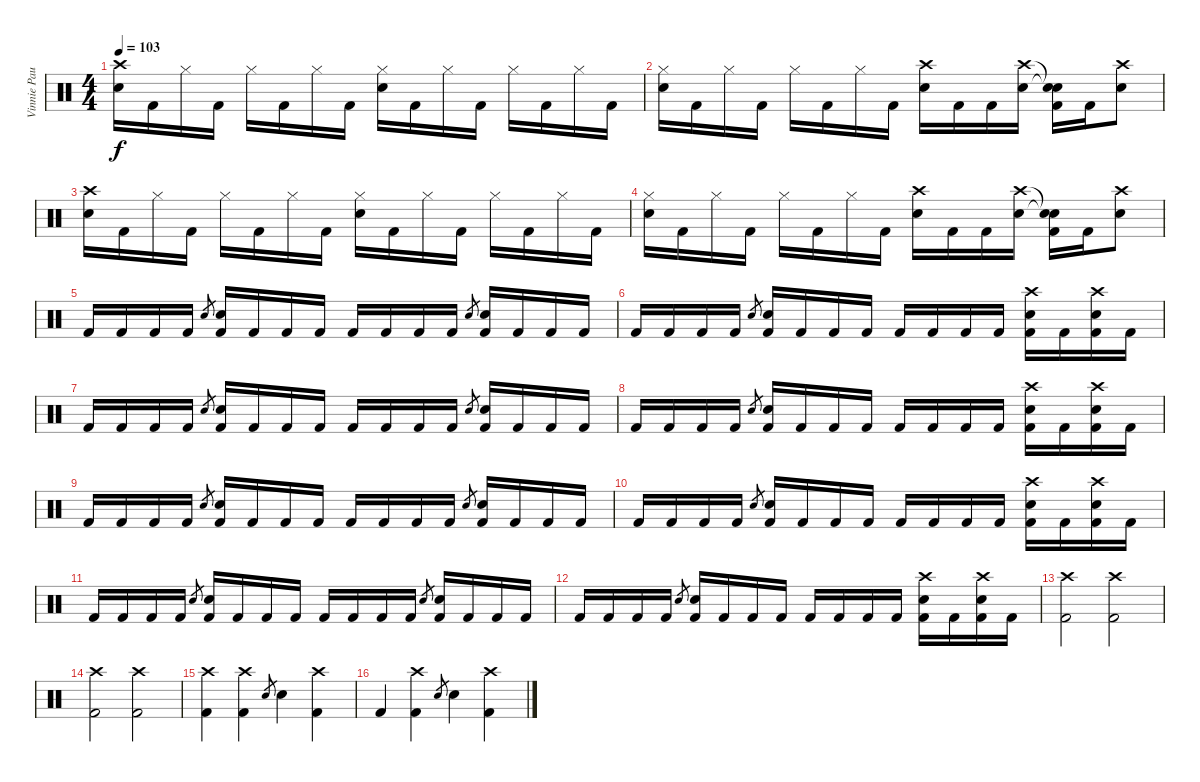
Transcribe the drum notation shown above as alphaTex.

\track ("Vinnie Paul" "Vinnie Pau") {instrument percussion}
\staff {score}
\articulation defaults
\ts (4 4)
\tempo 103
\clef neutral
\ks c
("Crash high (hit)" "Electric Snare (hit)").16{dy f} "Kick (hit) 2".16 "Hi-Hat (closed)".16 "Kick (hit) 2".16 "Hi-Hat (closed)".16 "Kick (hit) 2".16 "Hi-Hat (closed)".16 "Kick (hit) 2".16 ("Hi-Hat (closed)" "Electric Snare (hit)").16 "Kick (hit) 2".16 "Hi-Hat (closed)".16 "Kick (hit) 2".16 "Hi-Hat (closed)".16 "Kick (hit) 2".16 "Hi-Hat (closed)".16 "Kick (hit) 2".16 |
("Hi-Hat (closed)" "Electric Snare (hit)").16 "Kick (hit) 2".16 "Hi-Hat (closed)".16 "Kick (hit) 2".16 "Hi-Hat (closed)".16 "Kick (hit) 2".16 "Hi-Hat (closed)".16 "Kick (hit) 2".16 ("Crash high (hit)" "Electric Snare (hit)").16 "Kick (hit) 2".16 "Kick (hit) 2".16 ("Crash high (hit)" "Electric Snare (hit)").16 ("Snare (hit)"{t} "Snare (hit)"{t} "Kick (hit) 2").16 "Kick (hit) 2".16 ("Crash high (hit)" "Electric Snare (hit)").8 |
("Crash high (hit)" "Electric Snare (hit)").16 "Kick (hit) 2".16 "Hi-Hat (closed)".16 "Kick (hit) 2".16 "Hi-Hat (closed)".16 "Kick (hit) 2".16 "Hi-Hat (closed)".16 "Kick (hit) 2".16 ("Hi-Hat (closed)" "Electric Snare (hit)").16 "Kick (hit) 2".16 "Hi-Hat (closed)".16 "Kick (hit) 2".16 "Hi-Hat (closed)".16 "Kick (hit) 2".16 "Hi-Hat (closed)".16 "Kick (hit) 2".16 |
("Hi-Hat (closed)" "Electric Snare (hit)").16 "Kick (hit) 2".16 "Hi-Hat (closed)".16 "Kick (hit) 2".16 "Hi-Hat (closed)".16 "Kick (hit) 2".16 "Hi-Hat (closed)".16 "Kick (hit) 2".16 ("Crash high (hit)" "Electric Snare (hit)").16 "Kick (hit) 2".16 "Kick (hit) 2".16 ("Crash high (hit)" "Electric Snare (hit)").16 ("Snare (hit)"{t} "Snare (hit)"{t} "Kick (hit) 2").16 "Kick (hit) 2".16 ("Crash high (hit)" "Electric Snare (hit)").8 |
"Kick (hit) 2".16 "Kick (hit) 2".16 "Kick (hit) 2".16 "Kick (hit) 2".16 "Electric Snare (hit)".8{gr} ("Electric Snare (hit)" "Kick (hit) 2").16 "Kick (hit) 2".16 "Kick (hit) 2".16 "Kick (hit) 2".16 "Kick (hit) 2".16 "Kick (hit) 2".16 "Kick (hit) 2".16 "Kick (hit) 2".16 "Electric Snare (hit)".8{gr} ("Electric Snare (hit)" "Kick (hit) 2").16 "Kick (hit) 2".16 "Kick (hit) 2".16 "Kick (hit) 2".16 |
"Kick (hit) 2".16 "Kick (hit) 2".16 "Kick (hit) 2".16 "Kick (hit) 2".16 "Electric Snare (hit)".8{gr} ("Electric Snare (hit)" "Kick (hit) 2").16 "Kick (hit) 2".16 "Kick (hit) 2".16 "Kick (hit) 2".16 "Kick (hit) 2".16 "Kick (hit) 2".16 "Kick (hit) 2".16 "Kick (hit) 2".16 ("Crash high (hit)" "Electric Snare (hit)" "Kick (hit) 2").16 "Kick (hit) 2".16 ("Crash high (hit)" "Electric Snare (hit)" "Kick (hit) 2").16 "Kick (hit) 2".16 |
"Kick (hit) 2".16 "Kick (hit) 2".16 "Kick (hit) 2".16 "Kick (hit) 2".16 "Electric Snare (hit)".8{gr} ("Electric Snare (hit)" "Kick (hit) 2").16 "Kick (hit) 2".16 "Kick (hit) 2".16 "Kick (hit) 2".16 "Kick (hit) 2".16 "Kick (hit) 2".16 "Kick (hit) 2".16 "Kick (hit) 2".16 "Electric Snare (hit)".8{gr} ("Electric Snare (hit)" "Kick (hit) 2").16 "Kick (hit) 2".16 "Kick (hit) 2".16 "Kick (hit) 2".16 |
"Kick (hit) 2".16 "Kick (hit) 2".16 "Kick (hit) 2".16 "Kick (hit) 2".16 "Electric Snare (hit)".8{gr} ("Electric Snare (hit)" "Kick (hit) 2").16 "Kick (hit) 2".16 "Kick (hit) 2".16 "Kick (hit) 2".16 "Kick (hit) 2".16 "Kick (hit) 2".16 "Kick (hit) 2".16 "Kick (hit) 2".16 ("Crash high (hit)" "Electric Snare (hit)" "Kick (hit) 2").16 "Kick (hit) 2".16 ("Crash high (hit)" "Electric Snare (hit)" "Kick (hit) 2").16 "Kick (hit) 2".16 |
"Kick (hit) 2".16 "Kick (hit) 2".16 "Kick (hit) 2".16 "Kick (hit) 2".16 "Electric Snare (hit)".8{gr} ("Electric Snare (hit)" "Kick (hit) 2").16 "Kick (hit) 2".16 "Kick (hit) 2".16 "Kick (hit) 2".16 "Kick (hit) 2".16 "Kick (hit) 2".16 "Kick (hit) 2".16 "Kick (hit) 2".16 "Electric Snare (hit)".8{gr} ("Electric Snare (hit)" "Kick (hit) 2").16 "Kick (hit) 2".16 "Kick (hit) 2".16 "Kick (hit) 2".16 |
"Kick (hit) 2".16 "Kick (hit) 2".16 "Kick (hit) 2".16 "Kick (hit) 2".16 "Electric Snare (hit)".8{gr} ("Electric Snare (hit)" "Kick (hit) 2").16 "Kick (hit) 2".16 "Kick (hit) 2".16 "Kick (hit) 2".16 "Kick (hit) 2".16 "Kick (hit) 2".16 "Kick (hit) 2".16 "Kick (hit) 2".16 ("Crash high (hit)" "Electric Snare (hit)" "Kick (hit) 2").16 "Kick (hit) 2".16 ("Crash high (hit)" "Electric Snare (hit)" "Kick (hit) 2").16 "Kick (hit) 2".16 |
"Kick (hit) 2".16 "Kick (hit) 2".16 "Kick (hit) 2".16 "Kick (hit) 2".16 "Electric Snare (hit)".8{gr} ("Electric Snare (hit)" "Kick (hit) 2").16 "Kick (hit) 2".16 "Kick (hit) 2".16 "Kick (hit) 2".16 "Kick (hit) 2".16 "Kick (hit) 2".16 "Kick (hit) 2".16 "Kick (hit) 2".16 "Electric Snare (hit)".8{gr} ("Electric Snare (hit)" "Kick (hit) 2").16 "Kick (hit) 2".16 "Kick (hit) 2".16 "Kick (hit) 2".16 |
"Kick (hit) 2".16 "Kick (hit) 2".16 "Kick (hit) 2".16 "Kick (hit) 2".16 "Electric Snare (hit)".8{gr} ("Electric Snare (hit)" "Kick (hit) 2").16 "Kick (hit) 2".16 "Kick (hit) 2".16 "Kick (hit) 2".16 "Kick (hit) 2".16 "Kick (hit) 2".16 "Kick (hit) 2".16 "Kick (hit) 2".16 ("Crash high (hit)" "Electric Snare (hit)" "Kick (hit) 2").16 "Kick (hit) 2".16 ("Crash high (hit)" "Electric Snare (hit)" "Kick (hit) 2").16 "Kick (hit) 2".16 |
("Crash high (hit)" "Kick (hit) 2").2 ("Crash high (hit)" "Kick (hit) 2").2 |
("Crash high (hit)" "Kick (hit) 2").2 ("Crash high (hit)" "Kick (hit) 2").2 |
("Crash high (hit)" "Kick (hit) 2").4 ("Crash high (hit)" "Kick (hit) 2").4 "Electric Snare (hit)".8{gr} "Electric Snare (hit)".4 ("Crash high (hit)" "Kick (hit) 2").4 |
"Kick (hit) 2".4 ("Crash high (hit)" "Kick (hit) 2").4 "Electric Snare (hit)".8{gr} "Electric Snare (hit)".4 ("Crash high (hit)" "Kick (hit) 2").4
